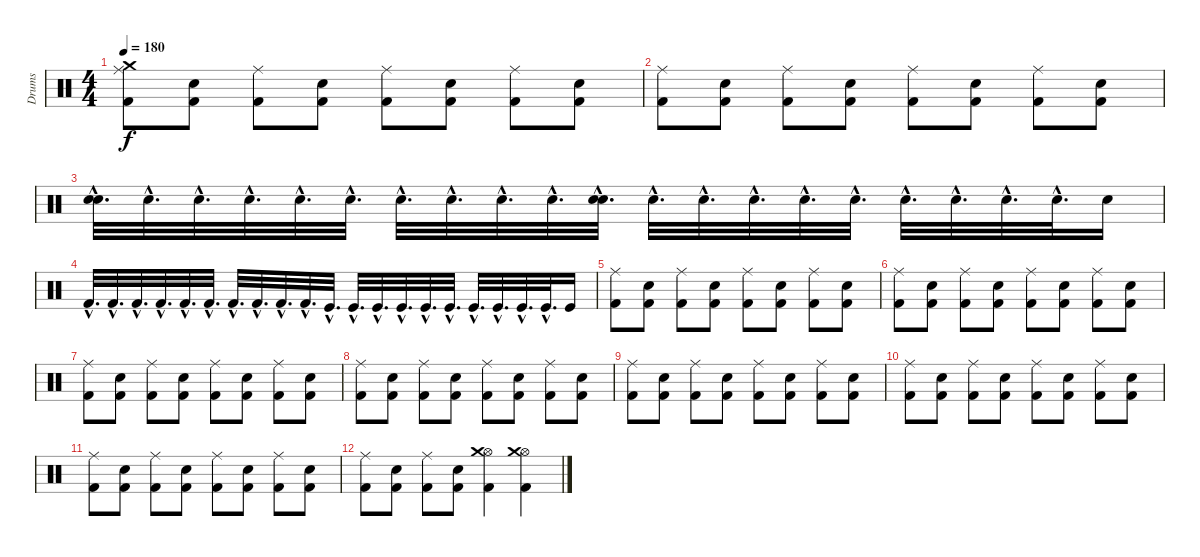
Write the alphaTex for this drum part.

\track ("Drums" "Drums") {instrument percussion}
\staff {score}
\articulation defaults
\ts (4 4)
\tempo 180
\clef neutral
\ks c
("Crash medium (hit)" "Ride (middle)" "Kick (hit) 2").8{dy f} ("Kick (hit) 2" "Electric Snare (hit)").8 ("Ride (middle)" "Kick (hit) 2").8 ("Kick (hit) 2" "Electric Snare (hit)").8 ("Ride (middle)" "Kick (hit) 2").8 ("Kick (hit) 2" "Electric Snare (hit)").8 ("Ride (middle)" "Kick (hit) 2").8 ("Kick (hit) 2" "Electric Snare (hit)").8 |
("Ride (middle)" "Kick (hit) 2").8 ("Kick (hit) 2" "Electric Snare (hit)").8 ("Ride (middle)" "Kick (hit) 2").8 ("Kick (hit) 2" "Electric Snare (hit)").8 ("Ride (middle)" "Kick (hit) 2").8 ("Kick (hit) 2" "Electric Snare (hit)").8 ("Ride (middle)" "Kick (hit) 2").8 ("Kick (hit) 2" "Electric Snare (hit)").8 |
("Snare (hit) 2"{hac} "Electric Snare (hit)"{hac}).32{d} "Electric Snare (hit)"{hac}.32{d} "Electric Snare (hit)"{hac}.32{d} "Electric Snare (hit)"{hac}.32{d} "Electric Snare (hit)"{hac}.32{d} "Electric Snare (hit)"{hac}.32{d} "Electric Snare (hit)"{hac}.32{d} "Electric Snare (hit)"{hac}.32{d} "Electric Snare (hit)"{hac}.32{d} "Electric Snare (hit)"{hac}.32{d} ("Snare (hit) 2"{hac} "Electric Snare (hit)"{hac}).32{d} "Electric Snare (hit)"{hac}.32{d} "Electric Snare (hit)"{hac}.32{d} "Electric Snare (hit)"{hac}.32{d} "Electric Snare (hit)"{hac}.32{d} "Electric Snare (hit)"{hac}.32{d} "Electric Snare (hit)"{hac}.32{d} "Electric Snare (hit)"{hac}.32{d} "Electric Snare (hit)"{hac}.32{d} "Electric Snare (hit)"{hac}.32{d} "Electric Snare (hit)".16 |
"Kick (hit) 2"{hac}.32{d} "Kick (hit) 2"{hac}.32{d} "Kick (hit) 2"{hac}.32{d} "Kick (hit) 2"{hac}.32{d} "Kick (hit) 2"{hac}.32{d} "Kick (hit) 2"{hac}.32{d} "Kick (hit) 2"{hac}.32{d} "Kick (hit) 2"{hac}.32{d} "Kick (hit) 2"{hac}.32{d} "Kick (hit) 2"{hac}.32{d} "Kick (hit)"{hac}.32{d} "Kick (hit)"{hac}.32{d} "Kick (hit)"{hac}.32{d} "Kick (hit)"{hac}.32{d} "Kick (hit)"{hac}.32{d} "Kick (hit)"{hac}.32{d} "Kick (hit)"{hac}.32{d} "Kick (hit)"{hac}.32{d} "Kick (hit)"{hac}.32{d} "Kick (hit)"{hac}.32{d} "Kick (hit)".16 |
("Ride (middle)" "Kick (hit) 2").8 ("Kick (hit) 2" "Electric Snare (hit)").8 ("Ride (middle)" "Kick (hit) 2").8 ("Kick (hit) 2" "Electric Snare (hit)").8 ("Ride (middle)" "Kick (hit) 2").8 ("Kick (hit) 2" "Electric Snare (hit)").8 ("Ride (middle)" "Kick (hit) 2").8 ("Kick (hit) 2" "Electric Snare (hit)").8 |
("Ride (middle)" "Kick (hit) 2").8 ("Kick (hit) 2" "Electric Snare (hit)").8 ("Ride (middle)" "Kick (hit) 2").8 ("Kick (hit) 2" "Electric Snare (hit)").8 ("Ride (middle)" "Kick (hit) 2").8 ("Kick (hit) 2" "Electric Snare (hit)").8 ("Ride (middle)" "Kick (hit) 2").8 ("Kick (hit) 2" "Electric Snare (hit)").8 |
("Ride (middle)" "Kick (hit) 2").8 ("Kick (hit) 2" "Electric Snare (hit)").8 ("Ride (middle)" "Kick (hit) 2").8 ("Kick (hit) 2" "Electric Snare (hit)").8 ("Ride (middle)" "Kick (hit) 2").8 ("Kick (hit) 2" "Electric Snare (hit)").8 ("Ride (middle)" "Kick (hit) 2").8 ("Kick (hit) 2" "Electric Snare (hit)").8 |
("Ride (middle)" "Kick (hit) 2").8 ("Kick (hit) 2" "Electric Snare (hit)").8 ("Ride (middle)" "Kick (hit) 2").8 ("Kick (hit) 2" "Electric Snare (hit)").8 ("Ride (middle)" "Kick (hit) 2").8 ("Kick (hit) 2" "Electric Snare (hit)").8 ("Ride (middle)" "Kick (hit) 2").8 ("Kick (hit) 2" "Electric Snare (hit)").8 |
("Ride (middle)" "Kick (hit) 2").8 ("Kick (hit) 2" "Electric Snare (hit)").8 ("Ride (middle)" "Kick (hit) 2").8 ("Kick (hit) 2" "Electric Snare (hit)").8 ("Ride (middle)" "Kick (hit) 2").8 ("Kick (hit) 2" "Electric Snare (hit)").8 ("Ride (middle)" "Kick (hit) 2").8 ("Kick (hit) 2" "Electric Snare (hit)").8 |
("Ride (middle)" "Kick (hit) 2").8 ("Kick (hit) 2" "Electric Snare (hit)").8 ("Ride (middle)" "Kick (hit) 2").8 ("Kick (hit) 2" "Electric Snare (hit)").8 ("Ride (middle)" "Kick (hit) 2").8 ("Kick (hit) 2" "Electric Snare (hit)").8 ("Ride (middle)" "Kick (hit) 2").8 ("Kick (hit) 2" "Electric Snare (hit)").8 |
("Ride (middle)" "Kick (hit) 2").8 ("Kick (hit) 2" "Electric Snare (hit)").8 ("Ride (middle)" "Kick (hit) 2").8 ("Kick (hit) 2" "Electric Snare (hit)").8 ("Ride (middle)" "Kick (hit) 2").8 ("Kick (hit) 2" "Electric Snare (hit)").8 ("Ride (middle)" "Kick (hit) 2").8 ("Kick (hit) 2" "Electric Snare (hit)").8 |
("Ride (middle)" "Kick (hit) 2").8 ("Kick (hit) 2" "Electric Snare (hit)").8 ("Ride (middle)" "Kick (hit) 2").8 ("Kick (hit) 2" "Electric Snare (hit)").8 ("Hi-Hat (open)" "Crash medium (hit)" "Kick (hit) 2").4 ("Hi-Hat (open)" "Crash medium (hit)" "Kick (hit) 2").4
